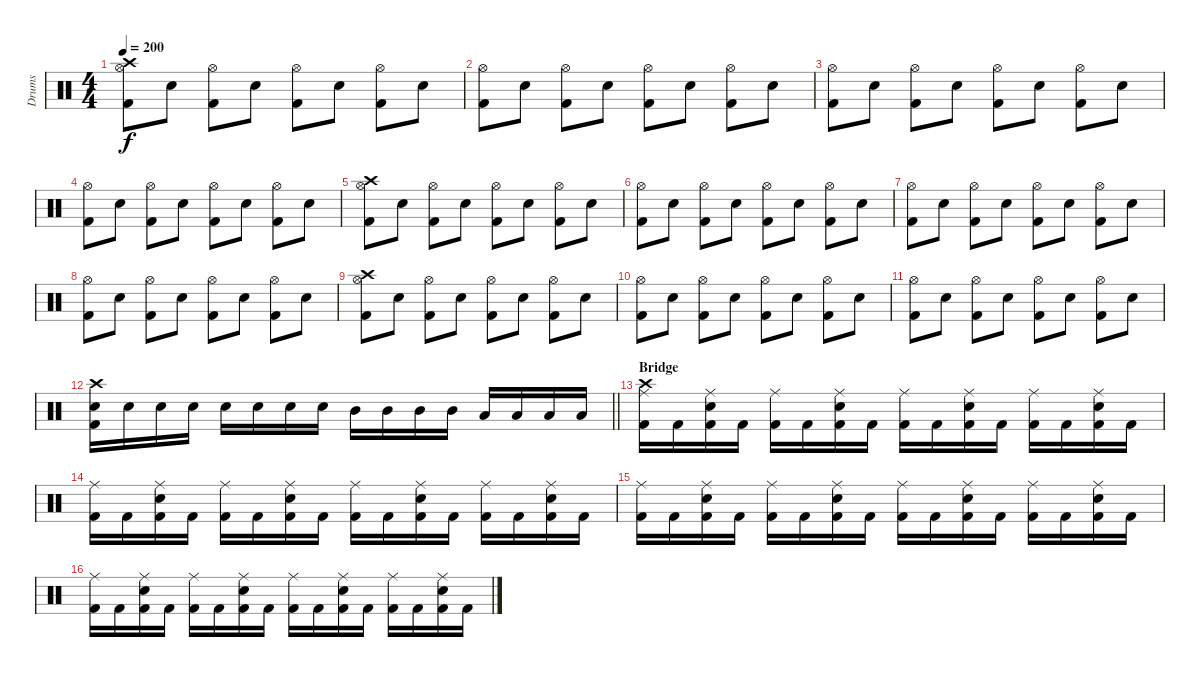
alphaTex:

\track ("Drums" "Drums") {instrument percussion}
\staff {score}
\articulation defaults
\ts (4 4)
\tempo 200
\clef neutral
\ks c
("Crash high (hit)" "Hi-Hat (open)" "Kick (hit) 2").8{dy f} "Snare (hit) 2".8 ("Hi-Hat (open)" "Kick (hit) 2").8 "Snare (hit) 2".8 ("Hi-Hat (open)" "Kick (hit) 2").8 "Snare (hit) 2".8 ("Hi-Hat (open)" "Kick (hit) 2").8 "Snare (hit) 2".8 |
("Hi-Hat (open)" "Kick (hit) 2").8 "Snare (hit) 2".8 ("Hi-Hat (open)" "Kick (hit) 2").8 "Snare (hit) 2".8 ("Hi-Hat (open)" "Kick (hit) 2").8 "Snare (hit) 2".8 ("Hi-Hat (open)" "Kick (hit) 2").8 "Snare (hit) 2".8 |
("Hi-Hat (open)" "Kick (hit) 2").8 "Snare (hit) 2".8 ("Hi-Hat (open)" "Kick (hit) 2").8 "Snare (hit) 2".8 ("Hi-Hat (open)" "Kick (hit) 2").8 "Snare (hit) 2".8 ("Hi-Hat (open)" "Kick (hit) 2").8 "Snare (hit) 2".8 |
("Hi-Hat (open)" "Kick (hit) 2").8 "Snare (hit) 2".8 ("Hi-Hat (open)" "Kick (hit) 2").8 "Snare (hit) 2".8 ("Hi-Hat (open)" "Kick (hit) 2").8 "Snare (hit) 2".8 ("Hi-Hat (open)" "Kick (hit) 2").8 "Snare (hit) 2".8 |
("Crash high (hit)" "Hi-Hat (open)" "Kick (hit) 2").8 "Snare (hit) 2".8 ("Hi-Hat (open)" "Kick (hit) 2").8 "Snare (hit) 2".8 ("Hi-Hat (open)" "Kick (hit) 2").8 "Snare (hit) 2".8 ("Hi-Hat (open)" "Kick (hit) 2").8 "Snare (hit) 2".8 |
("Hi-Hat (open)" "Kick (hit) 2").8 "Snare (hit) 2".8 ("Hi-Hat (open)" "Kick (hit) 2").8 "Snare (hit) 2".8 ("Hi-Hat (open)" "Kick (hit) 2").8 "Snare (hit) 2".8 ("Hi-Hat (open)" "Kick (hit) 2").8 "Snare (hit) 2".8 |
("Hi-Hat (open)" "Kick (hit) 2").8 "Snare (hit) 2".8 ("Hi-Hat (open)" "Kick (hit) 2").8 "Snare (hit) 2".8 ("Hi-Hat (open)" "Kick (hit) 2").8 "Snare (hit) 2".8 ("Hi-Hat (open)" "Kick (hit) 2").8 "Snare (hit) 2".8 |
("Hi-Hat (open)" "Kick (hit) 2").8 "Snare (hit) 2".8 ("Hi-Hat (open)" "Kick (hit) 2").8 "Snare (hit) 2".8 ("Hi-Hat (open)" "Kick (hit) 2").8 "Snare (hit) 2".8 ("Hi-Hat (open)" "Kick (hit) 2").8 "Snare (hit) 2".8 |
("Crash high (hit)" "Hi-Hat (open)" "Kick (hit) 2").8 "Snare (hit) 2".8 ("Hi-Hat (open)" "Kick (hit) 2").8 "Snare (hit) 2".8 ("Hi-Hat (open)" "Kick (hit) 2").8 "Snare (hit) 2".8 ("Hi-Hat (open)" "Kick (hit) 2").8 "Snare (hit) 2".8 |
("Hi-Hat (open)" "Kick (hit) 2").8 "Snare (hit) 2".8 ("Hi-Hat (open)" "Kick (hit) 2").8 "Snare (hit) 2".8 ("Hi-Hat (open)" "Kick (hit) 2").8 "Snare (hit) 2".8 ("Hi-Hat (open)" "Kick (hit) 2").8 "Snare (hit) 2".8 |
("Hi-Hat (open)" "Kick (hit) 2").8 "Snare (hit) 2".8 ("Hi-Hat (open)" "Kick (hit) 2").8 "Snare (hit) 2".8 ("Hi-Hat (open)" "Kick (hit) 2").8 "Snare (hit) 2".8 ("Hi-Hat (open)" "Kick (hit) 2").8 "Snare (hit) 2".8 |
\barLineRight lightlight
("Crash high (hit)" "Snare (hit) 2" "Kick (hit) 2").16 "Snare (hit) 2".16 "Snare (hit) 2".16 "Snare (hit) 2".16 "Snare (hit) 2".16 "Snare (hit) 2".16 "Snare (hit) 2".16 "Snare (hit) 2".16 "Mid Tom (hit)".16 "Mid Tom (hit)".16 "Mid Tom (hit)".16 "Mid Tom (hit)".16 "Low Tom (hit)".16 "Low Tom (hit)".16 "Low Tom (hit)".16 "Low Tom (hit)".16 |
\section ("" "Bridge")
("Crash high (hit)" "Ride (middle)" "Kick (hit) 2").16 "Kick (hit) 2".16 ("Ride (middle)" "Snare (hit) 2" "Kick (hit) 2").16 "Kick (hit) 2".16 ("Ride (middle)" "Kick (hit) 2").16 "Kick (hit) 2".16 ("Ride (middle)" "Snare (hit) 2" "Kick (hit) 2").16 "Kick (hit) 2".16 ("Ride (middle)" "Kick (hit) 2").16 "Kick (hit) 2".16 ("Ride (middle)" "Snare (hit) 2" "Kick (hit) 2").16 "Kick (hit) 2".16 ("Ride (middle)" "Kick (hit) 2").16 "Kick (hit) 2".16 ("Ride (middle)" "Snare (hit) 2" "Kick (hit) 2").16 "Kick (hit) 2".16 |
("Ride (middle)" "Kick (hit) 2").16 "Kick (hit) 2".16 ("Ride (middle)" "Snare (hit) 2" "Kick (hit) 2").16 "Kick (hit) 2".16 ("Ride (middle)" "Kick (hit) 2").16 "Kick (hit) 2".16 ("Ride (middle)" "Snare (hit) 2" "Kick (hit) 2").16 "Kick (hit) 2".16 ("Ride (middle)" "Kick (hit) 2").16 "Kick (hit) 2".16 ("Ride (middle)" "Snare (hit) 2" "Kick (hit) 2").16 "Kick (hit) 2".16 ("Ride (middle)" "Kick (hit) 2").16 "Kick (hit) 2".16 ("Ride (middle)" "Snare (hit) 2" "Kick (hit) 2").16 "Kick (hit) 2".16 |
("Ride (middle)" "Kick (hit) 2").16 "Kick (hit) 2".16 ("Ride (middle)" "Snare (hit) 2" "Kick (hit) 2").16 "Kick (hit) 2".16 ("Ride (middle)" "Kick (hit) 2").16 "Kick (hit) 2".16 ("Ride (middle)" "Snare (hit) 2" "Kick (hit) 2").16 "Kick (hit) 2".16 ("Ride (middle)" "Kick (hit) 2").16 "Kick (hit) 2".16 ("Ride (middle)" "Snare (hit) 2" "Kick (hit) 2").16 "Kick (hit) 2".16 ("Ride (middle)" "Kick (hit) 2").16 "Kick (hit) 2".16 ("Ride (middle)" "Snare (hit) 2" "Kick (hit) 2").16 "Kick (hit) 2".16 |
("Ride (middle)" "Kick (hit) 2").16 "Kick (hit) 2".16 ("Ride (middle)" "Snare (hit) 2" "Kick (hit) 2").16 "Kick (hit) 2".16 ("Ride (middle)" "Kick (hit) 2").16 "Kick (hit) 2".16 ("Ride (middle)" "Snare (hit) 2" "Kick (hit) 2").16 "Kick (hit) 2".16 ("Ride (middle)" "Kick (hit) 2").16 "Kick (hit) 2".16 ("Ride (middle)" "Snare (hit) 2" "Kick (hit) 2").16 "Kick (hit) 2".16 ("Ride (middle)" "Kick (hit) 2").16 "Kick (hit) 2".16 ("Ride (middle)" "Snare (hit) 2" "Kick (hit) 2").16 "Kick (hit) 2".16
